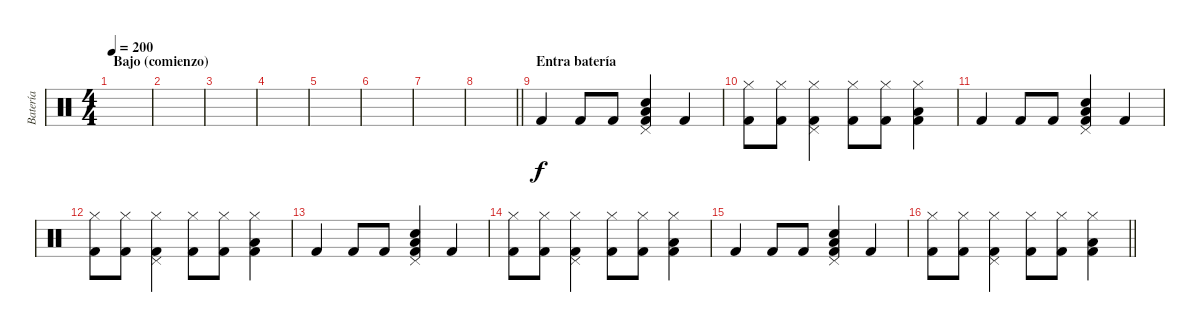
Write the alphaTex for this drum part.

\track ("Batería" "Batería") {instrument percussion}
\staff {score}
\articulation defaults
\ts (4 4)
\section ("" "Bajo (comienzo)")
\tempo 200
\clef neutral
\ks c
|
|
|
|
|
|
|
\barLineRight lightlight
|
\section ("" "Entra batería")
"Kick (hit) 2".4 "Kick (hit) 2".8 "Kick (hit) 2".8 ("Low Floor Tom (hit)" "Electric Snare (hit)" "Pedal Hi-Hat (hit)" "Kick (hit) 2").4 "Kick (hit) 2".4 |
("Hi-Hat (closed)" "Kick (hit) 2").8 ("Hi-Hat (closed)" "Kick (hit) 2").8 ("Hi-Hat (closed)" "Pedal Hi-Hat (hit)" "Kick (hit) 2").4 ("Hi-Hat (closed)" "Kick (hit) 2").8 ("Hi-Hat (closed)" "Kick (hit) 2").8 ("Hi-Hat (closed)" "Low Floor Tom (hit)" "Kick (hit) 2").4 |
"Kick (hit) 2".4 "Kick (hit) 2".8 "Kick (hit) 2".8 ("Low Floor Tom (hit)" "Electric Snare (hit)" "Pedal Hi-Hat (hit)" "Kick (hit) 2").4 "Kick (hit) 2".4 |
("Hi-Hat (closed)" "Kick (hit) 2").8 ("Hi-Hat (closed)" "Kick (hit) 2").8 ("Hi-Hat (closed)" "Pedal Hi-Hat (hit)" "Kick (hit) 2").4 ("Hi-Hat (closed)" "Kick (hit) 2").8 ("Hi-Hat (closed)" "Kick (hit) 2").8 ("Hi-Hat (closed)" "Low Floor Tom (hit)" "Kick (hit) 2").4 |
"Kick (hit) 2".4 "Kick (hit) 2".8 "Kick (hit) 2".8 ("Low Floor Tom (hit)" "Electric Snare (hit)" "Pedal Hi-Hat (hit)" "Kick (hit) 2").4 "Kick (hit) 2".4 |
("Hi-Hat (closed)" "Kick (hit) 2").8 ("Hi-Hat (closed)" "Kick (hit) 2").8 ("Hi-Hat (closed)" "Pedal Hi-Hat (hit)" "Kick (hit) 2").4 ("Hi-Hat (closed)" "Kick (hit) 2").8 ("Hi-Hat (closed)" "Kick (hit) 2").8 ("Hi-Hat (closed)" "Low Floor Tom (hit)" "Kick (hit) 2").4 |
"Kick (hit) 2".4 "Kick (hit) 2".8 "Kick (hit) 2".8 ("Low Floor Tom (hit)" "Electric Snare (hit)" "Pedal Hi-Hat (hit)" "Kick (hit) 2").4 "Kick (hit) 2".4 |
\barLineRight lightlight
("Hi-Hat (closed)" "Kick (hit) 2").8 ("Hi-Hat (closed)" "Kick (hit) 2").8 ("Hi-Hat (closed)" "Pedal Hi-Hat (hit)" "Kick (hit) 2").4 ("Hi-Hat (closed)" "Kick (hit) 2").8 ("Hi-Hat (closed)" "Kick (hit) 2").8 ("Hi-Hat (closed)" "Low Floor Tom (hit)" "Kick (hit) 2").4
